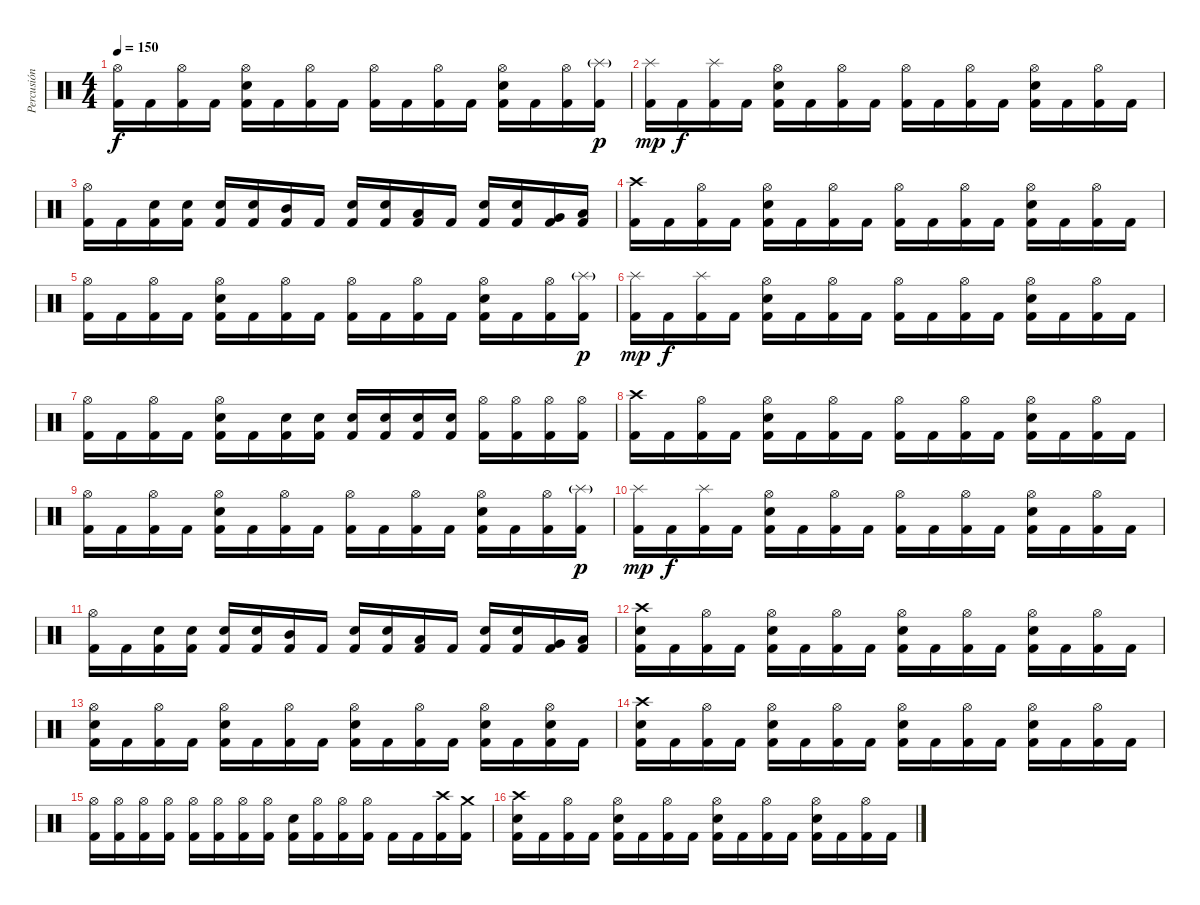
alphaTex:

\track ("Percusión" "Percusión") {instrument percussion}
\staff {score}
\articulation defaults
\ts (4 4)
\tempo 150
\clef neutral
\ks c
("Hi-Hat (open)" "Kick (hit) 2").16{dy f} "Kick (hit) 2".16 ("Hi-Hat (open)" "Kick (hit) 2").16 "Kick (hit) 2".16 ("Hi-Hat (open)" "Snare (hit) 2" "Kick (hit) 2").16 "Kick (hit) 2".16 ("Hi-Hat (open)" "Kick (hit) 2").16 "Kick (hit) 2".16 ("Hi-Hat (open)" "Kick (hit) 2").16 "Kick (hit) 2".16 ("Hi-Hat (open)" "Kick (hit) 2").16 "Kick (hit) 2".16 ("Hi-Hat (open)" "Snare (hit) 2" "Kick (hit) 2").16 "Kick (hit) 2".16 ("Hi-Hat (open)" "Kick (hit) 2").16 ("Splash (hit)"{g} "Kick (hit) 2").16{dy p} |
("Splash (hit)" "Kick (hit) 2").16{dy mp} "Kick (hit) 2".16{dy f} ("Splash (hit)" "Kick (hit) 2").16 "Kick (hit) 2".16 ("Hi-Hat (open)" "Snare (hit) 2" "Kick (hit) 2").16 "Kick (hit) 2".16 ("Hi-Hat (open)" "Kick (hit) 2").16 "Kick (hit) 2".16 ("Hi-Hat (open)" "Kick (hit) 2").16 "Kick (hit) 2".16 ("Hi-Hat (open)" "Kick (hit) 2").16 "Kick (hit) 2".16 ("Hi-Hat (open)" "Snare (hit) 2" "Kick (hit) 2").16 "Kick (hit) 2".16 ("Hi-Hat (open)" "Kick (hit) 2").16 "Kick (hit) 2".16 |
("Hi-Hat (open)" "Kick (hit) 2").16 "Kick (hit) 2".16 ("Snare (hit) 2" "Kick (hit) 2").16 ("Snare (hit) 2" "Kick (hit) 2").16 ("Snare (hit) 2" "Kick (hit) 2").16 ("Snare (hit) 2" "Kick (hit) 2").16 ("Mid Tom (hit)" "Kick (hit) 2").16 "Kick (hit) 2".16 ("Snare (hit) 2" "Kick (hit) 2").16 ("Snare (hit) 2" "Kick (hit) 2").16 ("Low Tom (hit)" "Kick (hit) 2").16 "Kick (hit) 2".16 ("Snare (hit) 2" "Kick (hit) 2").16 ("Snare (hit) 2" "Kick (hit) 2").16 ("Very Low Tom (hit)" "Kick (hit) 2").16 ("Low Floor Tom (hit)" "Kick (hit) 2").16 |
("Crash high (hit)" "Kick (hit) 2").16 "Kick (hit) 2".16 ("Hi-Hat (open)" "Kick (hit) 2").16 "Kick (hit) 2".16 ("Hi-Hat (open)" "Snare (hit) 2" "Kick (hit) 2").16 "Kick (hit) 2".16 ("Hi-Hat (open)" "Kick (hit) 2").16 "Kick (hit) 2".16 ("Hi-Hat (open)" "Kick (hit) 2").16 "Kick (hit) 2".16 ("Hi-Hat (open)" "Kick (hit) 2").16 "Kick (hit) 2".16 ("Hi-Hat (open)" "Snare (hit) 2" "Kick (hit) 2").16 "Kick (hit) 2".16 ("Hi-Hat (open)" "Kick (hit) 2").16 "Kick (hit) 2".16 |
("Hi-Hat (open)" "Kick (hit) 2").16 "Kick (hit) 2".16 ("Hi-Hat (open)" "Kick (hit) 2").16 "Kick (hit) 2".16 ("Hi-Hat (open)" "Snare (hit) 2" "Kick (hit) 2").16 "Kick (hit) 2".16 ("Hi-Hat (open)" "Kick (hit) 2").16 "Kick (hit) 2".16 ("Hi-Hat (open)" "Kick (hit) 2").16 "Kick (hit) 2".16 ("Hi-Hat (open)" "Kick (hit) 2").16 "Kick (hit) 2".16 ("Hi-Hat (open)" "Snare (hit) 2" "Kick (hit) 2").16 "Kick (hit) 2".16 ("Hi-Hat (open)" "Kick (hit) 2").16 ("Splash (hit)"{g} "Kick (hit) 2").16{dy p} |
("Splash (hit)" "Kick (hit) 2").16{dy mp} "Kick (hit) 2".16{dy f} ("Splash (hit)" "Kick (hit) 2").16 "Kick (hit) 2".16 ("Hi-Hat (open)" "Snare (hit) 2" "Kick (hit) 2").16 "Kick (hit) 2".16 ("Hi-Hat (open)" "Kick (hit) 2").16 "Kick (hit) 2".16 ("Hi-Hat (open)" "Kick (hit) 2").16 "Kick (hit) 2".16 ("Hi-Hat (open)" "Kick (hit) 2").16 "Kick (hit) 2".16 ("Hi-Hat (open)" "Snare (hit) 2" "Kick (hit) 2").16 "Kick (hit) 2".16 ("Hi-Hat (open)" "Kick (hit) 2").16 "Kick (hit) 2".16 |
("Hi-Hat (open)" "Kick (hit) 2").16 "Kick (hit) 2".16 ("Hi-Hat (open)" "Kick (hit) 2").16 "Kick (hit) 2".16 ("Hi-Hat (open)" "Snare (hit) 2" "Kick (hit) 2").16 "Kick (hit) 2".16 ("Snare (hit) 2" "Kick (hit) 2").16 ("Snare (hit) 2" "Kick (hit) 2").16 ("Snare (hit) 2" "Kick (hit) 2").16 ("Snare (hit) 2" "Kick (hit) 2").16 ("Snare (hit) 2" "Kick (hit) 2").16 ("Snare (hit) 2" "Kick (hit) 2").16 ("Hi-Hat (open)" "Kick (hit) 2").16 ("Hi-Hat (open)" "Kick (hit) 2").16 ("Hi-Hat (open)" "Kick (hit) 2").16 ("Hi-Hat (open)" "Kick (hit) 2").16 |
("Crash high (hit)" "Kick (hit) 2").16 "Kick (hit) 2".16 ("Hi-Hat (open)" "Kick (hit) 2").16 "Kick (hit) 2".16 ("Hi-Hat (open)" "Snare (hit) 2" "Kick (hit) 2").16 "Kick (hit) 2".16 ("Hi-Hat (open)" "Kick (hit) 2").16 "Kick (hit) 2".16 ("Hi-Hat (open)" "Kick (hit) 2").16 "Kick (hit) 2".16 ("Hi-Hat (open)" "Kick (hit) 2").16 "Kick (hit) 2".16 ("Hi-Hat (open)" "Snare (hit) 2" "Kick (hit) 2").16 "Kick (hit) 2".16 ("Hi-Hat (open)" "Kick (hit) 2").16 "Kick (hit) 2".16 |
("Hi-Hat (open)" "Kick (hit) 2").16 "Kick (hit) 2".16 ("Hi-Hat (open)" "Kick (hit) 2").16 "Kick (hit) 2".16 ("Hi-Hat (open)" "Snare (hit) 2" "Kick (hit) 2").16 "Kick (hit) 2".16 ("Hi-Hat (open)" "Kick (hit) 2").16 "Kick (hit) 2".16 ("Hi-Hat (open)" "Kick (hit) 2").16 "Kick (hit) 2".16 ("Hi-Hat (open)" "Kick (hit) 2").16 "Kick (hit) 2".16 ("Hi-Hat (open)" "Snare (hit) 2" "Kick (hit) 2").16 "Kick (hit) 2".16 ("Hi-Hat (open)" "Kick (hit) 2").16 ("Splash (hit)"{g} "Kick (hit) 2").16{dy p} |
("Splash (hit)" "Kick (hit) 2").16{dy mp} "Kick (hit) 2".16{dy f} ("Splash (hit)" "Kick (hit) 2").16 "Kick (hit) 2".16 ("Hi-Hat (open)" "Snare (hit) 2" "Kick (hit) 2").16 "Kick (hit) 2".16 ("Hi-Hat (open)" "Kick (hit) 2").16 "Kick (hit) 2".16 ("Hi-Hat (open)" "Kick (hit) 2").16 "Kick (hit) 2".16 ("Hi-Hat (open)" "Kick (hit) 2").16 "Kick (hit) 2".16 ("Hi-Hat (open)" "Snare (hit) 2" "Kick (hit) 2").16 "Kick (hit) 2".16 ("Hi-Hat (open)" "Kick (hit) 2").16 "Kick (hit) 2".16 |
("Hi-Hat (open)" "Kick (hit) 2").16 "Kick (hit) 2".16 ("Snare (hit) 2" "Kick (hit) 2").16 ("Snare (hit) 2" "Kick (hit) 2").16 ("Snare (hit) 2" "Kick (hit) 2").16 ("Snare (hit) 2" "Kick (hit) 2").16 ("Mid Tom (hit)" "Kick (hit) 2").16 "Kick (hit) 2".16 ("Snare (hit) 2" "Kick (hit) 2").16 ("Snare (hit) 2" "Kick (hit) 2").16 ("Low Tom (hit)" "Kick (hit) 2").16 "Kick (hit) 2".16 ("Snare (hit) 2" "Kick (hit) 2").16 ("Snare (hit) 2" "Kick (hit) 2").16 ("Very Low Tom (hit)" "Kick (hit) 2").16 ("Low Floor Tom (hit)" "Kick (hit) 2").16 |
("Crash high (hit)" "Snare (hit) 2" "Kick (hit) 2").16 "Kick (hit) 2".16 ("Hi-Hat (open)" "Kick (hit) 2").16 "Kick (hit) 2".16 ("Hi-Hat (open)" "Snare (hit) 2" "Kick (hit) 2").16 "Kick (hit) 2".16 ("Hi-Hat (open)" "Kick (hit) 2").16 "Kick (hit) 2".16 ("Hi-Hat (open)" "Snare (hit) 2" "Kick (hit) 2").16 "Kick (hit) 2".16 ("Hi-Hat (open)" "Kick (hit) 2").16 "Kick (hit) 2".16 ("Hi-Hat (open)" "Snare (hit) 2" "Kick (hit) 2").16 "Kick (hit) 2".16 ("Hi-Hat (open)" "Kick (hit) 2").16 "Kick (hit) 2".16 |
("Hi-Hat (open)" "Snare (hit) 2" "Kick (hit) 2").16 "Kick (hit) 2".16 ("Hi-Hat (open)" "Kick (hit) 2").16 "Kick (hit) 2".16 ("Hi-Hat (open)" "Snare (hit) 2" "Kick (hit) 2").16 "Kick (hit) 2".16 ("Hi-Hat (open)" "Kick (hit) 2").16 "Kick (hit) 2".16 ("Hi-Hat (open)" "Snare (hit) 2" "Kick (hit) 2").16 "Kick (hit) 2".16 ("Hi-Hat (open)" "Kick (hit) 2").16 "Kick (hit) 2".16 ("Hi-Hat (open)" "Snare (hit) 2" "Kick (hit) 2").16 "Kick (hit) 2".16 ("Hi-Hat (open)" "Snare (hit) 2" "Kick (hit) 2").16 "Kick (hit) 2".16 |
("Crash high (hit)" "Snare (hit) 2" "Kick (hit) 2").16 "Kick (hit) 2".16 ("Hi-Hat (open)" "Kick (hit) 2").16 "Kick (hit) 2".16 ("Hi-Hat (open)" "Snare (hit) 2" "Kick (hit) 2").16 "Kick (hit) 2".16 ("Hi-Hat (open)" "Kick (hit) 2").16 "Kick (hit) 2".16 ("Hi-Hat (open)" "Snare (hit) 2" "Kick (hit) 2").16 "Kick (hit) 2".16 ("Hi-Hat (open)" "Kick (hit) 2").16 "Kick (hit) 2".16 ("Hi-Hat (open)" "Snare (hit) 2" "Kick (hit) 2").16 "Kick (hit) 2".16 ("Hi-Hat (open)" "Kick (hit) 2").16 "Kick (hit) 2".16 |
("Hi-Hat (open)" "Kick (hit) 2").16 ("Hi-Hat (open)" "Kick (hit) 2").16 ("Hi-Hat (open)" "Kick (hit) 2").16 ("Hi-Hat (open)" "Kick (hit) 2").16 ("Hi-Hat (open)" "Kick (hit) 2").16 ("Hi-Hat (open)" "Kick (hit) 2").16 ("Hi-Hat (open)" "Kick (hit) 2").16 ("Hi-Hat (open)" "Kick (hit) 2").16 ("Snare (hit) 2" "Kick (hit) 2").16 ("Hi-Hat (open)" "Kick (hit) 2").16 ("Hi-Hat (open)" "Kick (hit) 2").16 ("Hi-Hat (open)" "Kick (hit) 2").16 "Kick (hit) 2".16 "Kick (hit) 2".16 ("Crash high (hit)" "Kick (hit) 2").16 ("Crash medium (hit)" "Kick (hit) 2").16 |
("Crash high (hit)" "Snare (hit) 2" "Kick (hit) 2").16 "Kick (hit) 2".16 ("Hi-Hat (open)" "Kick (hit) 2").16 "Kick (hit) 2".16 ("Hi-Hat (open)" "Snare (hit) 2" "Kick (hit) 2").16 "Kick (hit) 2".16 ("Hi-Hat (open)" "Kick (hit) 2").16 "Kick (hit) 2".16 ("Hi-Hat (open)" "Snare (hit) 2" "Kick (hit) 2").16 "Kick (hit) 2".16 ("Hi-Hat (open)" "Kick (hit) 2").16 "Kick (hit) 2".16 ("Hi-Hat (open)" "Snare (hit) 2" "Kick (hit) 2").16 "Kick (hit) 2".16 ("Hi-Hat (open)" "Kick (hit) 2").16 "Kick (hit) 2".16
